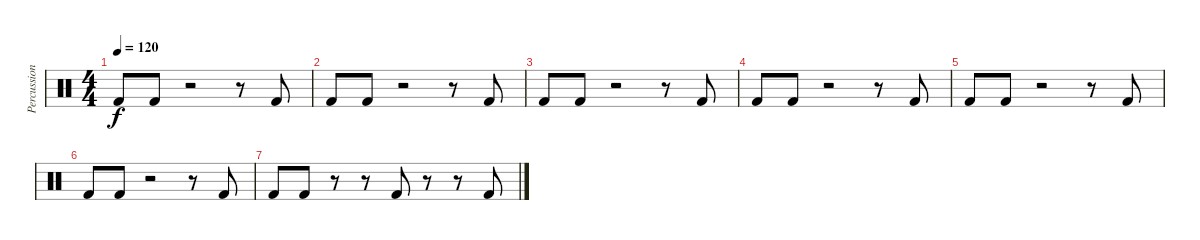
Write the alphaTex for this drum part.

\track ("Percussions" "Percussion") {instrument percussion}
\staff {score}
\articulation defaults
\ts (4 4)
\tempo 120
\clef neutral
\ks c "Kick (hit) 2".8{dy f} "Kick (hit) 2".8
r.2 r.8 "Kick (hit) 2".8 |
"Kick (hit) 2".8 "Kick (hit) 2".8 r.2 r.8 "Kick (hit) 2".8 |
"Kick (hit) 2".8 "Kick (hit) 2".8 r.2 r.8 "Kick (hit) 2".8 |
"Kick (hit) 2".8 "Kick (hit) 2".8 r.2 r.8 "Kick (hit) 2".8 |
"Kick (hit) 2".8 "Kick (hit) 2".8 r.2 r.8 "Kick (hit) 2".8 |
"Kick (hit) 2".8 "Kick (hit) 2".8 r.2 r.8 "Kick (hit) 2".8 |
"Kick (hit) 2".8 "Kick (hit) 2".8 r.8 r.8 "Kick (hit) 2".8 r.8 r.8 "Kick (hit) 2".8
